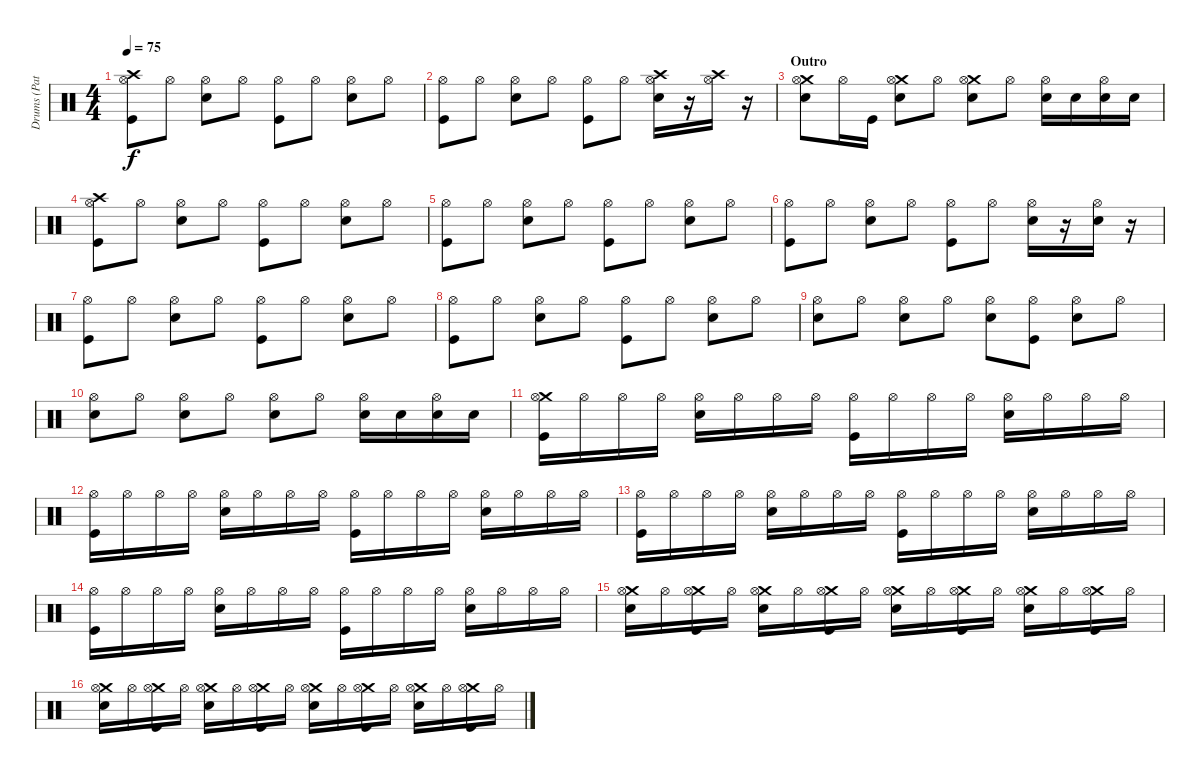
\track ("Drums (Patrick Wilson)" "Drums (Pat") {instrument percussion}
\staff {score}
\articulation defaults
\ts (4 4)
\tempo 75
\clef neutral
\ks c
("Crash high (hit)" "Hi-Hat (open)" "Kick (hit)").8{dy f} "Hi-Hat (open)".8 ("Hi-Hat (open)" "Electric Snare (hit)").8 "Hi-Hat (open)".8 ("Hi-Hat (open)" "Kick (hit)").8 "Hi-Hat (open)".8 ("Hi-Hat (open)" "Electric Snare (hit)").8 "Hi-Hat (open)".8 |
("Hi-Hat (open)" "Kick (hit)").8 "Hi-Hat (open)".8 ("Hi-Hat (open)" "Electric Snare (hit)").8 "Hi-Hat (open)".8 ("Hi-Hat (open)" "Kick (hit)").8 "Hi-Hat (open)".8 ("Crash high (hit)" "Hi-Hat (open)" "Electric Snare (hit)").16 r.16 ("Crash high (hit)" "Hi-Hat (open)").16 r.16 |
\section ("" "Outro")
("Crash medium (hit)" "Hi-Hat (open)" "Electric Snare (hit)").8 "Hi-Hat (open)".16 "Kick (hit)".16 ("Crash medium (hit)" "Hi-Hat (open)" "Electric Snare (hit)").8 "Hi-Hat (open)".8 ("Crash medium (hit)" "Hi-Hat (open)" "Electric Snare (hit)").8 "Hi-Hat (open)".8 ("Hi-Hat (open)" "Electric Snare (hit)").16 "Electric Snare (hit)".16 ("Hi-Hat (open)" "Electric Snare (hit)").16 "Electric Snare (hit)".16 |
("Crash high (hit)" "Hi-Hat (open)" "Kick (hit)").8 "Hi-Hat (open)".8 ("Hi-Hat (open)" "Electric Snare (hit)").8 "Hi-Hat (open)".8 ("Hi-Hat (open)" "Kick (hit)").8 "Hi-Hat (open)".8 ("Hi-Hat (open)" "Electric Snare (hit)").8 "Hi-Hat (open)".8 |
("Hi-Hat (open)" "Kick (hit)").8 "Hi-Hat (open)".8 ("Hi-Hat (open)" "Electric Snare (hit)").8 "Hi-Hat (open)".8 ("Hi-Hat (open)" "Kick (hit)").8 "Hi-Hat (open)".8 ("Hi-Hat (open)" "Electric Snare (hit)").8 "Hi-Hat (open)".8 |
("Hi-Hat (open)" "Kick (hit)").8 "Hi-Hat (open)".8 ("Hi-Hat (open)" "Electric Snare (hit)").8 "Hi-Hat (open)".8 ("Hi-Hat (open)" "Kick (hit)").8 "Hi-Hat (open)".8 ("Hi-Hat (open)" "Electric Snare (hit)").16 r.16 ("Hi-Hat (open)" "Electric Snare (hit)").16 r.16 |
("Hi-Hat (open)" "Kick (hit)").8 "Hi-Hat (open)".8 ("Hi-Hat (open)" "Electric Snare (hit)").8 "Hi-Hat (open)".8 ("Hi-Hat (open)" "Kick (hit)").8 "Hi-Hat (open)".8 ("Hi-Hat (open)" "Electric Snare (hit)").8 "Hi-Hat (open)".8 |
("Hi-Hat (open)" "Kick (hit)").8 "Hi-Hat (open)".8 ("Hi-Hat (open)" "Electric Snare (hit)").8 "Hi-Hat (open)".8 ("Hi-Hat (open)" "Kick (hit)").8 "Hi-Hat (open)".8 ("Hi-Hat (open)" "Electric Snare (hit)").8 "Hi-Hat (open)".8 |
("Hi-Hat (open)" "Electric Snare (hit)").8 "Hi-Hat (open)".8 ("Hi-Hat (open)" "Electric Snare (hit)").8 "Hi-Hat (open)".8 ("Hi-Hat (open)" "Electric Snare (hit)").8 ("Hi-Hat (open)" "Kick (hit)").8 ("Hi-Hat (open)" "Electric Snare (hit)").8 "Hi-Hat (open)".8 |
("Hi-Hat (open)" "Electric Snare (hit)").8 "Hi-Hat (open)".8 ("Hi-Hat (open)" "Electric Snare (hit)").8 "Hi-Hat (open)".8 ("Hi-Hat (open)" "Electric Snare (hit)").8 "Hi-Hat (open)".8 ("Hi-Hat (open)" "Electric Snare (hit)").16 "Electric Snare (hit)".16 ("Hi-Hat (open)" "Electric Snare (hit)").16 "Electric Snare (hit)".16 |
("Crash medium (hit)" "Hi-Hat (open)" "Kick (hit)").16 "Hi-Hat (open)".16 "Hi-Hat (open)".16 "Hi-Hat (open)".16 ("Hi-Hat (open)" "Electric Snare (hit)").16 "Hi-Hat (open)".16 "Hi-Hat (open)".16 "Hi-Hat (open)".16 ("Hi-Hat (open)" "Kick (hit)").16 "Hi-Hat (open)".16 "Hi-Hat (open)".16 "Hi-Hat (open)".16 ("Hi-Hat (open)" "Electric Snare (hit)").16 "Hi-Hat (open)".16 "Hi-Hat (open)".16 "Hi-Hat (open)".16 |
("Hi-Hat (open)" "Kick (hit)").16 "Hi-Hat (open)".16 "Hi-Hat (open)".16 "Hi-Hat (open)".16 ("Hi-Hat (open)" "Electric Snare (hit)").16 "Hi-Hat (open)".16 "Hi-Hat (open)".16 "Hi-Hat (open)".16 ("Hi-Hat (open)" "Kick (hit)").16 "Hi-Hat (open)".16 "Hi-Hat (open)".16 "Hi-Hat (open)".16 ("Hi-Hat (open)" "Electric Snare (hit)").16 "Hi-Hat (open)".16 "Hi-Hat (open)".16 "Hi-Hat (open)".16 |
("Hi-Hat (open)" "Kick (hit)").16 "Hi-Hat (open)".16 "Hi-Hat (open)".16 "Hi-Hat (open)".16 ("Hi-Hat (open)" "Electric Snare (hit)").16 "Hi-Hat (open)".16 "Hi-Hat (open)".16 "Hi-Hat (open)".16 ("Hi-Hat (open)" "Kick (hit)").16 "Hi-Hat (open)".16 "Hi-Hat (open)".16 "Hi-Hat (open)".16 ("Hi-Hat (open)" "Electric Snare (hit)").16 "Hi-Hat (open)".16 "Hi-Hat (open)".16 "Hi-Hat (open)".16 |
("Hi-Hat (open)" "Kick (hit)").16 "Hi-Hat (open)".16 "Hi-Hat (open)".16 "Hi-Hat (open)".16 ("Hi-Hat (open)" "Electric Snare (hit)").16 "Hi-Hat (open)".16 "Hi-Hat (open)".16 "Hi-Hat (open)".16 ("Hi-Hat (open)" "Kick (hit)").16 "Hi-Hat (open)".16 "Hi-Hat (open)".16 "Hi-Hat (open)".16 ("Hi-Hat (open)" "Electric Snare (hit)").16 "Hi-Hat (open)".16 "Hi-Hat (open)".16 "Hi-Hat (open)".16 |
("Crash medium (hit)" "Hi-Hat (open)" "Electric Snare (hit)").16 "Hi-Hat (open)".16 ("Crash medium (hit)" "Hi-Hat (open)" "Kick (hit)").16 "Hi-Hat (open)".16 ("Crash medium (hit)" "Hi-Hat (open)" "Electric Snare (hit)").16 "Hi-Hat (open)".16 ("Crash medium (hit)" "Hi-Hat (open)" "Kick (hit)").16 "Hi-Hat (open)".16 ("Crash medium (hit)" "Hi-Hat (open)" "Electric Snare (hit)").16 "Hi-Hat (open)".16 ("Crash medium (hit)" "Hi-Hat (open)" "Kick (hit)").16 "Hi-Hat (open)".16 ("Crash medium (hit)" "Hi-Hat (open)" "Electric Snare (hit)").16 "Hi-Hat (open)".16 ("Crash medium (hit)" "Hi-Hat (open)" "Kick (hit)").16 "Hi-Hat (open)".16 |
("Crash medium (hit)" "Hi-Hat (open)" "Electric Snare (hit)").16 "Hi-Hat (open)".16 ("Crash medium (hit)" "Hi-Hat (open)" "Kick (hit)").16 "Hi-Hat (open)".16 ("Crash medium (hit)" "Hi-Hat (open)" "Electric Snare (hit)").16 "Hi-Hat (open)".16 ("Crash medium (hit)" "Hi-Hat (open)" "Kick (hit)").16 "Hi-Hat (open)".16 ("Crash medium (hit)" "Hi-Hat (open)" "Electric Snare (hit)").16 "Hi-Hat (open)".16 ("Crash medium (hit)" "Hi-Hat (open)" "Kick (hit)").16 "Hi-Hat (open)".16 ("Crash medium (hit)" "Hi-Hat (open)" "Electric Snare (hit)").16 "Hi-Hat (open)".16 ("Crash medium (hit)" "Hi-Hat (open)" "Kick (hit)").16 "Hi-Hat (open)".16
